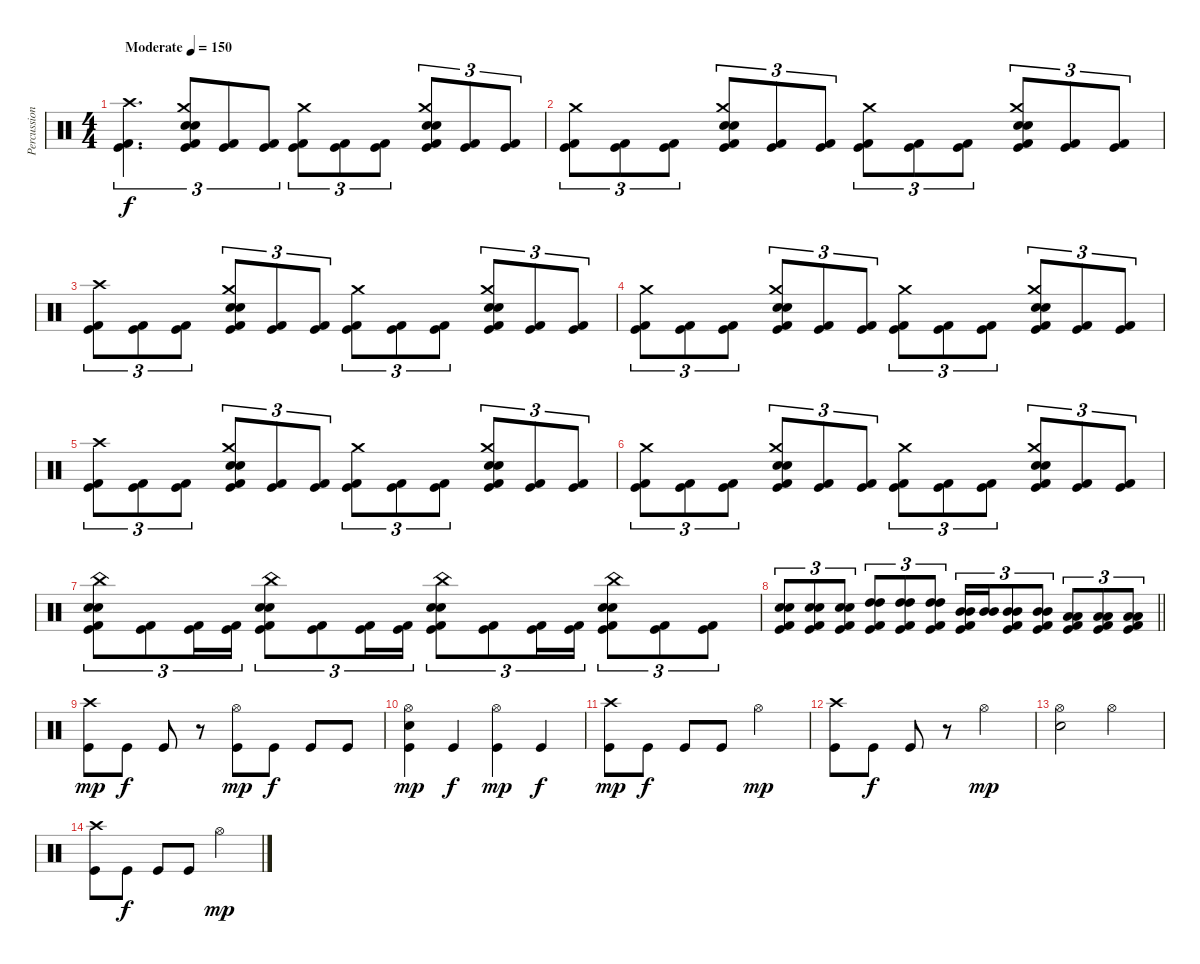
\track ("Percussion" "Percussion") {instrument percussion}
\staff {score}
\articulation defaults
\ts (4 4)
\tempo (150 "Moderate")
\clef neutral
\ks c
("Crash high (hit)" "Kick (hit) 2" "Kick (hit)").4{d tu (3 2) dy f} ("Crash medium (hit)" "Electric Snare (hit)" "Electric Snare (hit)" "Kick (hit) 2" "Kick (hit)").8{tu (3 2)} ("Kick (hit) 2" "Kick (hit)").8{tu (3 2)} ("Kick (hit) 2" "Kick (hit)").8{tu (3 2)} ("Crash medium (hit)" "Kick (hit) 2" "Kick (hit)").8{tu (3 2)} ("Kick (hit) 2" "Kick (hit)").8{tu (3 2)} ("Kick (hit) 2" "Kick (hit)").8{tu (3 2)} ("Crash medium (hit)" "Electric Snare (hit)" "Electric Snare (hit)" "Kick (hit) 2" "Kick (hit)").8{tu (3 2)} ("Kick (hit) 2" "Kick (hit)").8{tu (3 2)} ("Kick (hit) 2" "Kick (hit)").8{tu (3 2)} |
("Crash medium (hit)" "Kick (hit) 2" "Kick (hit)").8{tu (3 2)} ("Kick (hit) 2" "Kick (hit)").8{tu (3 2)} ("Kick (hit) 2" "Kick (hit)").8{tu (3 2)} ("Crash medium (hit)" "Electric Snare (hit)" "Electric Snare (hit)" "Kick (hit) 2" "Kick (hit)").8{tu (3 2)} ("Kick (hit) 2" "Kick (hit)").8{tu (3 2)} ("Kick (hit) 2" "Kick (hit)").8{tu (3 2)} ("Crash medium (hit)" "Kick (hit) 2" "Kick (hit)").8{tu (3 2)} ("Kick (hit) 2" "Kick (hit)").8{tu (3 2)} ("Kick (hit) 2" "Kick (hit)").8{tu (3 2)} ("Crash medium (hit)" "Electric Snare (hit)" "Electric Snare (hit)" "Kick (hit) 2" "Kick (hit)").8{tu (3 2)} ("Kick (hit) 2" "Kick (hit)").8{tu (3 2)} ("Kick (hit) 2" "Kick (hit)").8{tu (3 2)} |
("Crash high (hit)" "Kick (hit) 2" "Kick (hit)").8{tu (3 2)} ("Kick (hit) 2" "Kick (hit)").8{tu (3 2)} ("Kick (hit) 2" "Kick (hit)").8{tu (3 2)} ("Crash medium (hit)" "Electric Snare (hit)" "Electric Snare (hit)" "Kick (hit) 2" "Kick (hit)").8{tu (3 2)} ("Kick (hit) 2" "Kick (hit)").8{tu (3 2)} ("Kick (hit) 2" "Kick (hit)").8{tu (3 2)} ("Crash medium (hit)" "Kick (hit) 2" "Kick (hit)").8{tu (3 2)} ("Kick (hit) 2" "Kick (hit)").8{tu (3 2)} ("Kick (hit) 2" "Kick (hit)").8{tu (3 2)} ("Crash medium (hit)" "Electric Snare (hit)" "Electric Snare (hit)" "Kick (hit) 2" "Kick (hit)").8{tu (3 2)} ("Kick (hit) 2" "Kick (hit)").8{tu (3 2)} ("Kick (hit) 2" "Kick (hit)").8{tu (3 2)} |
("Crash medium (hit)" "Kick (hit) 2" "Kick (hit)").8{tu (3 2)} ("Kick (hit) 2" "Kick (hit)").8{tu (3 2)} ("Kick (hit) 2" "Kick (hit)").8{tu (3 2)} ("Crash medium (hit)" "Electric Snare (hit)" "Electric Snare (hit)" "Kick (hit) 2" "Kick (hit)").8{tu (3 2)} ("Kick (hit) 2" "Kick (hit)").8{tu (3 2)} ("Kick (hit) 2" "Kick (hit)").8{tu (3 2)} ("Crash medium (hit)" "Kick (hit) 2" "Kick (hit)").8{tu (3 2)} ("Kick (hit) 2" "Kick (hit)").8{tu (3 2)} ("Kick (hit) 2" "Kick (hit)").8{tu (3 2)} ("Crash medium (hit)" "Electric Snare (hit)" "Electric Snare (hit)" "Kick (hit) 2" "Kick (hit)").8{tu (3 2)} ("Kick (hit) 2" "Kick (hit)").8{tu (3 2)} ("Kick (hit) 2" "Kick (hit)").8{tu (3 2)} |
("Crash high (hit)" "Kick (hit) 2" "Kick (hit)").8{tu (3 2)} ("Kick (hit) 2" "Kick (hit)").8{tu (3 2)} ("Kick (hit) 2" "Kick (hit)").8{tu (3 2)} ("Crash medium (hit)" "Electric Snare (hit)" "Electric Snare (hit)" "Kick (hit) 2" "Kick (hit)").8{tu (3 2)} ("Kick (hit) 2" "Kick (hit)").8{tu (3 2)} ("Kick (hit) 2" "Kick (hit)").8{tu (3 2)} ("Crash medium (hit)" "Kick (hit) 2" "Kick (hit)").8{tu (3 2)} ("Kick (hit) 2" "Kick (hit)").8{tu (3 2)} ("Kick (hit) 2" "Kick (hit)").8{tu (3 2)} ("Crash medium (hit)" "Electric Snare (hit)" "Electric Snare (hit)" "Kick (hit) 2" "Kick (hit)").8{tu (3 2)} ("Kick (hit) 2" "Kick (hit)").8{tu (3 2)} ("Kick (hit) 2" "Kick (hit)").8{tu (3 2)} |
("Crash medium (hit)" "Kick (hit) 2" "Kick (hit)").8{tu (3 2)} ("Kick (hit) 2" "Kick (hit)").8{tu (3 2)} ("Kick (hit) 2" "Kick (hit)").8{tu (3 2)} ("Crash medium (hit)" "Electric Snare (hit)" "Electric Snare (hit)" "Kick (hit) 2" "Kick (hit)").8{tu (3 2)} ("Kick (hit) 2" "Kick (hit)").8{tu (3 2)} ("Kick (hit) 2" "Kick (hit)").8{tu (3 2)} ("Crash medium (hit)" "Kick (hit) 2" "Kick (hit)").8{tu (3 2)} ("Kick (hit) 2" "Kick (hit)").8{tu (3 2)} ("Kick (hit) 2" "Kick (hit)").8{tu (3 2)} ("Crash medium (hit)" "Electric Snare (hit)" "Electric Snare (hit)" "Kick (hit) 2" "Kick (hit)").8{tu (3 2)} ("Kick (hit) 2" "Kick (hit)").8{tu (3 2)} ("Kick (hit) 2" "Kick (hit)").8{tu (3 2)} |
("China (hit)" "Electric Snare (hit)" "Electric Snare (hit)" "Kick (hit) 2" "Kick (hit)").8{tu (3 2)} ("Kick (hit) 2" "Kick (hit)").8{tu (3 2)} ("Kick (hit) 2" "Kick (hit)").16{tu (3 2)} ("Kick (hit) 2" "Kick (hit)").16{tu (3 2)} ("China (hit)" "Electric Snare (hit)" "Electric Snare (hit)" "Kick (hit) 2" "Kick (hit)").8{tu (3 2)} ("Kick (hit) 2" "Kick (hit)").8{tu (3 2)} ("Kick (hit) 2" "Kick (hit)").16{tu (3 2)} ("Kick (hit) 2" "Kick (hit)").16{tu (3 2)} ("China (hit)" "Electric Snare (hit)" "Electric Snare (hit)" "Kick (hit) 2" "Kick (hit)").8{tu (3 2)} ("Kick (hit) 2" "Kick (hit)").8{tu (3 2)} ("Kick (hit) 2" "Kick (hit)").16{tu (3 2)} ("Kick (hit) 2" "Kick (hit)").16{tu (3 2)} ("China (hit)" "Electric Snare (hit)" "Electric Snare (hit)" "Kick (hit) 2" "Kick (hit)").8{tu (3 2)} ("Kick (hit) 2" "Kick (hit)").8{tu (3 2)} ("Kick (hit) 2" "Kick (hit)").8{tu (3 2)} |
\barLineRight lightlight
("Electric Snare (hit)" "Electric Snare (hit)" "Kick (hit) 2" "Kick (hit)").8{tu (3 2)} ("Electric Snare (hit)" "Electric Snare (hit)" "Kick (hit) 2" "Kick (hit)").8{tu (3 2)} ("Electric Snare (hit)" "Electric Snare (hit)" "Kick (hit) 2" "Kick (hit)").8{tu (3 2)} ("High Tom (hit)" "High Tom (hit)" "Kick (hit) 2" "Kick (hit)").8{tu (3 2)} ("High Tom (hit)" "High Tom (hit)" "Kick (hit) 2" "Kick (hit)").8{tu (3 2)} ("High Tom (hit)" "High Tom (hit)" "Kick (hit) 2" "Kick (hit)").8{tu (3 2)} ("Mid Tom (hit)" "Mid Tom (hit)" "Kick (hit) 2" "Kick (hit)").16{tu (3 2)} ("Mid Tom (hit)" "Mid Tom (hit)").16{tu (3 2)} ("Mid Tom (hit)" "Mid Tom (hit)" "Kick (hit) 2" "Kick (hit)").8{tu (3 2)} ("Mid Tom (hit)" "Mid Tom (hit)" "Kick (hit) 2" "Kick (hit)").8{tu (3 2)} ("Low Tom (hit)" "Low Tom (hit)" "Kick (hit) 2" "Kick (hit)").8{tu (3 2)} ("Low Tom (hit)" "Low Tom (hit)" "Kick (hit) 2" "Kick (hit)").8{tu (3 2)} ("Low Tom (hit)" "Low Tom (hit)" "Kick (hit) 2" "Kick (hit)").8{tu (3 2)} |
("Crash high (hit)" "Kick (hit)").8{dy mp} "Kick (hit)".8{dy f} "Kick (hit)".8 r.8 ("Hi-Hat (open)" "Kick (hit)").8{dy mp} "Kick (hit)".8{dy f} "Kick (hit)".8 "Kick (hit)".8 |
("Hi-Hat (open)" "Electric Snare (hit)" "Kick (hit)").4{dy mp} "Kick (hit)".4{dy f} ("Hi-Hat (open)" "Kick (hit)").4{dy mp} "Kick (hit)".4{dy f} |
("Crash high (hit)" "Kick (hit)").8{dy mp} "Kick (hit)".8{dy f} "Kick (hit)".8 "Kick (hit)".8 "Hi-Hat (open)".2{dy mp} |
("Crash high (hit)" "Kick (hit)").8 "Kick (hit)".8{dy f} "Kick (hit)".8 r.8 "Hi-Hat (open)".2{dy mp} |
("Hi-Hat (open)" "Electric Snare (hit)").2 "Hi-Hat (open)".2 |
("Crash high (hit)" "Kick (hit)").8 "Kick (hit)".8{dy f} "Kick (hit)".8 "Kick (hit)".8 "Hi-Hat (open)".2{dy mp}
